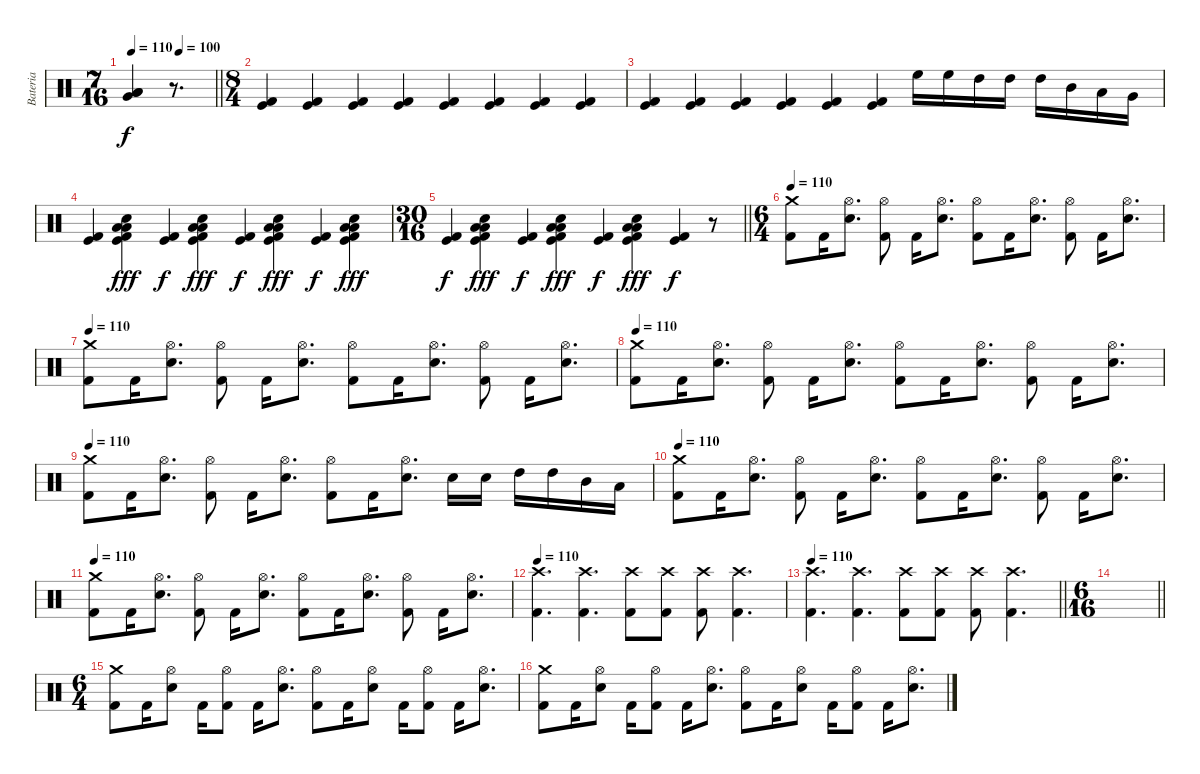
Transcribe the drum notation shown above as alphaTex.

\track ("Bateria" "Bateria") {instrument percussion}
\staff {score}
\articulation defaults
\ts (7 16)
\tempo 110
\tempo (100 0.5714285714285714)
\clef neutral
\barLineRight lightlight
\ks c
("Low Tom (hit)" "Low Floor Tom (hit)" "Very Low Tom (hit)").4{dy f} r.8{d} |
\ts (8 4)
("Kick (hit) 2" "Kick (hit)").4 ("Kick (hit) 2" "Kick (hit)").4 ("Kick (hit) 2" "Kick (hit)").4 ("Kick (hit) 2" "Kick (hit)").4 ("Kick (hit) 2" "Kick (hit)").4 ("Kick (hit) 2" "Kick (hit)").4 ("Kick (hit) 2" "Kick (hit)").4 ("Kick (hit) 2" "Kick (hit)").4 |
("Kick (hit) 2" "Kick (hit)").4 ("Kick (hit) 2" "Kick (hit)").4 ("Kick (hit) 2" "Kick (hit)").4 ("Kick (hit) 2" "Kick (hit)").4 ("Kick (hit) 2" "Kick (hit)").4 ("Kick (hit) 2" "Kick (hit)").4 "High Floor Tom (hit)".16 "High Floor Tom (hit)".16 "High Tom (hit)".16 "High Tom (hit)".16 "High Tom (hit)".16 "Mid Tom (hit)".16 "Low Tom (hit)".16 "Very Low Tom (hit)".16 |
("Kick (hit) 2" "Kick (hit)").4 ("Kick (hit) 2" "Snare (hit) 2" "Kick (hit)" "Low Tom (hit)" "Low Floor Tom (hit)").4{dy fff} ("Kick (hit) 2" "Kick (hit)").4{dy f} ("Kick (hit) 2" "Snare (hit) 2" "Kick (hit)" "Low Tom (hit)" "Low Floor Tom (hit)").4{dy fff} ("Kick (hit) 2" "Kick (hit)").4{dy f} ("Kick (hit) 2" "Snare (hit) 2" "Kick (hit)" "Low Tom (hit)" "Low Floor Tom (hit)").4{dy fff} ("Kick (hit) 2" "Kick (hit)").4{dy f} ("Kick (hit) 2" "Snare (hit) 2" "Kick (hit)" "Low Tom (hit)" "Low Floor Tom (hit)").4{dy fff} |
\ts (30 16)
\barLineRight lightlight
("Kick (hit) 2" "Kick (hit)").4{dy f} ("Kick (hit) 2" "Snare (hit) 2" "Kick (hit)" "Low Tom (hit)" "Low Floor Tom (hit)").4{dy fff} ("Kick (hit) 2" "Kick (hit)").4{dy f} ("Kick (hit) 2" "Snare (hit) 2" "Kick (hit)" "Low Tom (hit)" "Low Floor Tom (hit)").4{dy fff} ("Kick (hit) 2" "Kick (hit)").4{dy f} ("Kick (hit) 2" "Snare (hit) 2" "Kick (hit)" "Low Tom (hit)" "Low Floor Tom (hit)").4{dy fff} ("Kick (hit) 2" "Kick (hit)").4{dy f} r.8 |
\ts (6 4)
\tempo 110
("Crash medium (hit)" "Kick (hit) 2").8 "Kick (hit) 2".16 ("Hi-Hat (open)" "Snare (hit) 2").8{d} ("Hi-Hat (open)" "Kick (hit) 2").8 "Kick (hit) 2".16 ("Hi-Hat (open)" "Snare (hit) 2").8{d} ("Hi-Hat (open)" "Kick (hit) 2").8 "Kick (hit) 2".16 ("Hi-Hat (open)" "Snare (hit) 2").8{d} ("Hi-Hat (open)" "Kick (hit) 2").8 "Kick (hit) 2".16 ("Hi-Hat (open)" "Snare (hit) 2").8{d} |
\tempo 105
\tempo 110
("Crash medium (hit)" "Kick (hit) 2").8 "Kick (hit) 2".16 ("Hi-Hat (open)" "Snare (hit) 2").8{d} ("Hi-Hat (open)" "Kick (hit) 2").8 "Kick (hit) 2".16 ("Hi-Hat (open)" "Snare (hit) 2").8{d} ("Hi-Hat (open)" "Kick (hit) 2").8 "Kick (hit) 2".16 ("Hi-Hat (open)" "Snare (hit) 2").8{d} ("Hi-Hat (open)" "Kick (hit) 2").8 "Kick (hit) 2".16 ("Hi-Hat (open)" "Snare (hit) 2").8{d} |
\tempo 110
("Crash medium (hit)" "Kick (hit) 2").8 "Kick (hit) 2".16 ("Hi-Hat (open)" "Snare (hit) 2").8{d} ("Hi-Hat (open)" "Kick (hit) 2").8 "Kick (hit) 2".16 ("Hi-Hat (open)" "Snare (hit) 2").8{d} ("Hi-Hat (open)" "Kick (hit) 2").8 "Kick (hit) 2".16 ("Hi-Hat (open)" "Snare (hit) 2").8{d} ("Hi-Hat (open)" "Kick (hit) 2").8 "Kick (hit) 2".16 ("Hi-Hat (open)" "Snare (hit) 2").8{d} |
\tempo 105
\tempo 110
("Crash medium (hit)" "Kick (hit) 2").8 "Kick (hit) 2".16 ("Hi-Hat (open)" "Snare (hit) 2").8{d} ("Hi-Hat (open)" "Kick (hit) 2").8 "Kick (hit) 2".16 ("Hi-Hat (open)" "Snare (hit) 2").8{d} ("Hi-Hat (open)" "Kick (hit) 2").8 "Kick (hit) 2".16 ("Hi-Hat (open)" "Snare (hit) 2").8{d} "Snare (hit) 2".16 "Snare (hit) 2".16 "High Tom (hit)".16 "High Tom (hit)".16 "Mid Tom (hit)".16 "Low Tom (hit)".16 |
\tempo 110
("Crash medium (hit)" "Kick (hit) 2").8 "Kick (hit) 2".16 ("Hi-Hat (open)" "Snare (hit) 2").8{d} ("Hi-Hat (open)" "Kick (hit) 2").8 "Kick (hit) 2".16 ("Hi-Hat (open)" "Snare (hit) 2").8{d} ("Hi-Hat (open)" "Kick (hit) 2").8 "Kick (hit) 2".16 ("Hi-Hat (open)" "Snare (hit) 2").8{d} ("Hi-Hat (open)" "Kick (hit) 2").8 "Kick (hit) 2".16 ("Hi-Hat (open)" "Snare (hit) 2").8{d} |
\tempo 105
\tempo 110
("Crash medium (hit)" "Kick (hit) 2").8 "Kick (hit) 2".16 ("Hi-Hat (open)" "Snare (hit) 2").8{d} ("Hi-Hat (open)" "Kick (hit) 2").8 "Kick (hit) 2".16 ("Hi-Hat (open)" "Snare (hit) 2").8{d} ("Hi-Hat (open)" "Kick (hit) 2").8 "Kick (hit) 2".16 ("Hi-Hat (open)" "Snare (hit) 2").8{d} ("Hi-Hat (open)" "Kick (hit) 2").8 "Kick (hit) 2".16 ("Hi-Hat (open)" "Snare (hit) 2").8{d} |
\tempo 110
("Crash high (hit)" "Kick (hit) 2").4{d} ("Crash high (hit)" "Kick (hit) 2").4{d} ("Crash high (hit)" "Kick (hit) 2").8 ("Crash high (hit)" "Kick (hit) 2").8 ("Crash high (hit)" "Kick (hit) 2").8 ("Crash high (hit)" "Kick (hit) 2").4{d} |
\tempo 110
\barLineRight lightlight
("Crash high (hit)" "Kick (hit) 2").4{d} ("Crash high (hit)" "Kick (hit) 2").4{d} ("Crash high (hit)" "Kick (hit) 2").8 ("Crash high (hit)" "Kick (hit) 2").8 ("Crash high (hit)" "Kick (hit) 2").8 ("Crash high (hit)" "Kick (hit) 2").4{d} |
\ts (6 16)
\barLineRight lightlight
|
\ts (6 4)
("Crash medium (hit)" "Kick (hit) 2").8 "Kick (hit) 2".16 ("Hi-Hat (open)" "Snare (hit) 2").8 "Kick (hit) 2".16 ("Hi-Hat (open)" "Kick (hit) 2").8 "Kick (hit) 2".16 ("Hi-Hat (open)" "Snare (hit) 2").8{d} ("Hi-Hat (open)" "Kick (hit) 2").8 "Kick (hit) 2".16 ("Hi-Hat (open)" "Snare (hit) 2").8 "Kick (hit) 2".16 ("Hi-Hat (open)" "Kick (hit) 2").8 "Kick (hit) 2".16 ("Hi-Hat (open)" "Snare (hit) 2").8{d} |
("Crash medium (hit)" "Kick (hit) 2").8 "Kick (hit) 2".16 ("Hi-Hat (open)" "Snare (hit) 2").8 "Kick (hit) 2".16 ("Hi-Hat (open)" "Kick (hit) 2").8 "Kick (hit) 2".16 ("Hi-Hat (open)" "Snare (hit) 2").8{d} ("Hi-Hat (open)" "Kick (hit) 2").8 "Kick (hit) 2".16 ("Hi-Hat (open)" "Snare (hit) 2").8 "Kick (hit) 2".16 ("Hi-Hat (open)" "Kick (hit) 2").8 "Kick (hit) 2".16 ("Hi-Hat (open)" "Snare (hit) 2").8{d}
